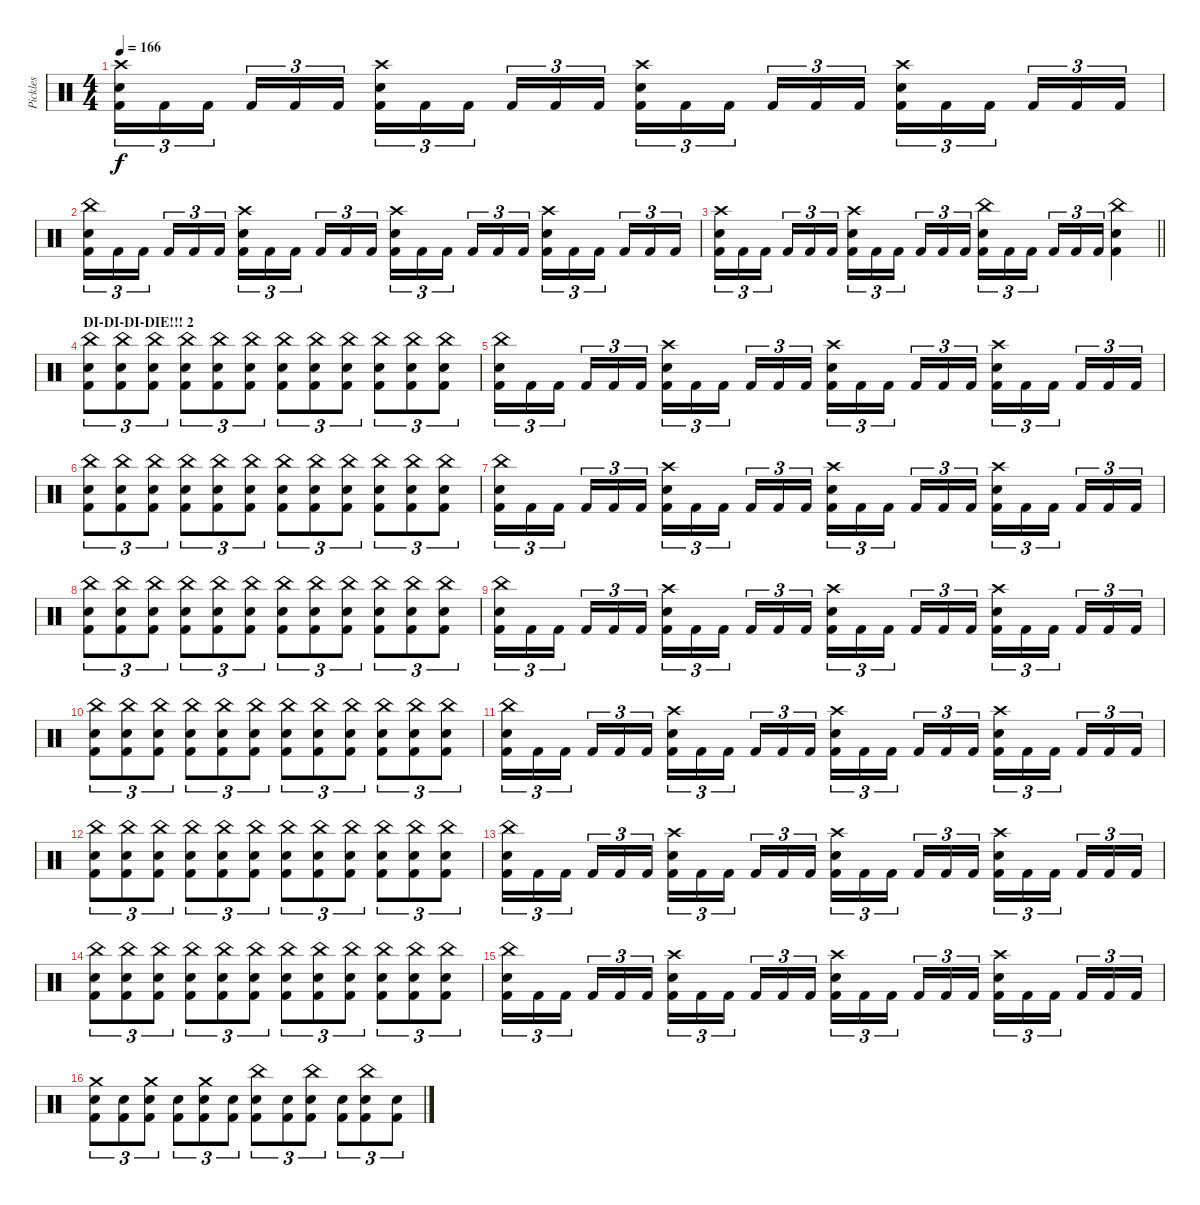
\track ("Pickles" "Pickles") {instrument percussion}
\staff {score}
\articulation defaults
\ts (4 4)
\tempo 166
\clef neutral
\ks c
("Crash high (hit)" "Snare (hit) 2" "Kick (hit) 2").16{tu (3 2) dy f} "Kick (hit) 2".16{tu (3 2)} "Kick (hit) 2".16{tu (3 2) beam splitsecondary} "Kick (hit) 2".16{tu (3 2)} "Kick (hit) 2".16{tu (3 2)} "Kick (hit) 2".16{tu (3 2)} ("Crash high (hit)" "Snare (hit) 2" "Kick (hit) 2").16{tu (3 2)} "Kick (hit) 2".16{tu (3 2)} "Kick (hit) 2".16{tu (3 2) beam splitsecondary} "Kick (hit) 2".16{tu (3 2)} "Kick (hit) 2".16{tu (3 2)} "Kick (hit) 2".16{tu (3 2)} ("Crash high (hit)" "Snare (hit) 2" "Kick (hit) 2").16{tu (3 2)} "Kick (hit) 2".16{tu (3 2)} "Kick (hit) 2".16{tu (3 2) beam splitsecondary} "Kick (hit) 2".16{tu (3 2)} "Kick (hit) 2".16{tu (3 2)} "Kick (hit) 2".16{tu (3 2)} ("Crash high (hit)" "Snare (hit) 2" "Kick (hit) 2").16{tu (3 2)} "Kick (hit) 2".16{tu (3 2)} "Kick (hit) 2".16{tu (3 2) beam splitsecondary} "Kick (hit) 2".16{tu (3 2)} "Kick (hit) 2".16{tu (3 2)} "Kick (hit) 2".16{tu (3 2)} |
("China (hit)" "Snare (hit) 2" "Kick (hit) 2").16{tu (3 2)} "Kick (hit) 2".16{tu (3 2)} "Kick (hit) 2".16{tu (3 2) beam splitsecondary} "Kick (hit) 2".16{tu (3 2)} "Kick (hit) 2".16{tu (3 2)} "Kick (hit) 2".16{tu (3 2)} ("Crash high (hit)" "Snare (hit) 2" "Kick (hit) 2").16{tu (3 2)} "Kick (hit) 2".16{tu (3 2)} "Kick (hit) 2".16{tu (3 2) beam splitsecondary} "Kick (hit) 2".16{tu (3 2)} "Kick (hit) 2".16{tu (3 2)} "Kick (hit) 2".16{tu (3 2)} ("Crash high (hit)" "Snare (hit) 2" "Kick (hit) 2").16{tu (3 2)} "Kick (hit) 2".16{tu (3 2)} "Kick (hit) 2".16{tu (3 2) beam splitsecondary} "Kick (hit) 2".16{tu (3 2)} "Kick (hit) 2".16{tu (3 2)} "Kick (hit) 2".16{tu (3 2)} ("Crash high (hit)" "Snare (hit) 2" "Kick (hit) 2").16{tu (3 2)} "Kick (hit) 2".16{tu (3 2)} "Kick (hit) 2".16{tu (3 2) beam splitsecondary} "Kick (hit) 2".16{tu (3 2)} "Kick (hit) 2".16{tu (3 2)} "Kick (hit) 2".16{tu (3 2)} |
\barLineRight lightlight
("Crash high (hit)" "Snare (hit) 2" "Kick (hit) 2").16{tu (3 2)} "Kick (hit) 2".16{tu (3 2)} "Kick (hit) 2".16{tu (3 2) beam splitsecondary} "Kick (hit) 2".16{tu (3 2)} "Kick (hit) 2".16{tu (3 2)} "Kick (hit) 2".16{tu (3 2)} ("Crash high (hit)" "Snare (hit) 2" "Kick (hit) 2").16{tu (3 2)} "Kick (hit) 2".16{tu (3 2)} "Kick (hit) 2".16{tu (3 2) beam splitsecondary} "Kick (hit) 2".16{tu (3 2)} "Kick (hit) 2".16{tu (3 2)} "Kick (hit) 2".16{tu (3 2)} ("China (hit)" "Snare (hit) 2" "Kick (hit) 2").16{tu (3 2)} "Kick (hit) 2".16{tu (3 2)} "Kick (hit) 2".16{tu (3 2) beam splitsecondary} "Kick (hit) 2".16{tu (3 2)} "Kick (hit) 2".16{tu (3 2)} "Kick (hit) 2".16{tu (3 2)} ("China (hit)" "Snare (hit) 2" "Kick (hit) 2").4 |
\section ("" "DI-DI-DI-DIE!!! 2")
("China (hit)" "Snare (hit) 2" "Kick (hit) 2").8{tu (3 2)} ("China (hit)" "Snare (hit) 2" "Kick (hit) 2").8{tu (3 2)} ("China (hit)" "Snare (hit) 2" "Kick (hit) 2").8{tu (3 2)} ("China (hit)" "Snare (hit) 2" "Kick (hit) 2").8{tu (3 2)} ("China (hit)" "Snare (hit) 2" "Kick (hit) 2").8{tu (3 2)} ("China (hit)" "Snare (hit) 2" "Kick (hit) 2").8{tu (3 2)} ("China (hit)" "Snare (hit) 2" "Kick (hit) 2").8{tu (3 2)} ("China (hit)" "Snare (hit) 2" "Kick (hit) 2").8{tu (3 2)} ("China (hit)" "Snare (hit) 2" "Kick (hit) 2").8{tu (3 2)} ("China (hit)" "Snare (hit) 2" "Kick (hit) 2").8{tu (3 2)} ("China (hit)" "Snare (hit) 2" "Kick (hit) 2").8{tu (3 2)} ("China (hit)" "Snare (hit) 2" "Kick (hit) 2").8{tu (3 2)} |
("China (hit)" "Snare (hit) 2" "Kick (hit) 2").16{tu (3 2)} "Kick (hit) 2".16{tu (3 2)} "Kick (hit) 2".16{tu (3 2) beam splitsecondary} "Kick (hit) 2".16{tu (3 2)} "Kick (hit) 2".16{tu (3 2)} "Kick (hit) 2".16{tu (3 2)} ("Crash high (hit)" "Snare (hit) 2" "Kick (hit) 2").16{tu (3 2)} "Kick (hit) 2".16{tu (3 2)} "Kick (hit) 2".16{tu (3 2) beam splitsecondary} "Kick (hit) 2".16{tu (3 2)} "Kick (hit) 2".16{tu (3 2)} "Kick (hit) 2".16{tu (3 2)} ("Crash high (hit)" "Snare (hit) 2" "Kick (hit) 2").16{tu (3 2)} "Kick (hit) 2".16{tu (3 2)} "Kick (hit) 2".16{tu (3 2) beam splitsecondary} "Kick (hit) 2".16{tu (3 2)} "Kick (hit) 2".16{tu (3 2)} "Kick (hit) 2".16{tu (3 2)} ("Crash high (hit)" "Snare (hit) 2" "Kick (hit) 2").16{tu (3 2)} "Kick (hit) 2".16{tu (3 2)} "Kick (hit) 2".16{tu (3 2) beam splitsecondary} "Kick (hit) 2".16{tu (3 2)} "Kick (hit) 2".16{tu (3 2)} "Kick (hit) 2".16{tu (3 2)} |
("China (hit)" "Snare (hit) 2" "Kick (hit) 2").8{tu (3 2)} ("China (hit)" "Snare (hit) 2" "Kick (hit) 2").8{tu (3 2)} ("China (hit)" "Snare (hit) 2" "Kick (hit) 2").8{tu (3 2)} ("China (hit)" "Snare (hit) 2" "Kick (hit) 2").8{tu (3 2)} ("China (hit)" "Snare (hit) 2" "Kick (hit) 2").8{tu (3 2)} ("China (hit)" "Snare (hit) 2" "Kick (hit) 2").8{tu (3 2)} ("China (hit)" "Snare (hit) 2" "Kick (hit) 2").8{tu (3 2)} ("China (hit)" "Snare (hit) 2" "Kick (hit) 2").8{tu (3 2)} ("China (hit)" "Snare (hit) 2" "Kick (hit) 2").8{tu (3 2)} ("China (hit)" "Snare (hit) 2" "Kick (hit) 2").8{tu (3 2)} ("China (hit)" "Snare (hit) 2" "Kick (hit) 2").8{tu (3 2)} ("China (hit)" "Snare (hit) 2" "Kick (hit) 2").8{tu (3 2)} |
("China (hit)" "Snare (hit) 2" "Kick (hit) 2").16{tu (3 2)} "Kick (hit) 2".16{tu (3 2)} "Kick (hit) 2".16{tu (3 2) beam splitsecondary} "Kick (hit) 2".16{tu (3 2)} "Kick (hit) 2".16{tu (3 2)} "Kick (hit) 2".16{tu (3 2)} ("Crash high (hit)" "Snare (hit) 2" "Kick (hit) 2").16{tu (3 2)} "Kick (hit) 2".16{tu (3 2)} "Kick (hit) 2".16{tu (3 2) beam splitsecondary} "Kick (hit) 2".16{tu (3 2)} "Kick (hit) 2".16{tu (3 2)} "Kick (hit) 2".16{tu (3 2)} ("Crash high (hit)" "Snare (hit) 2" "Kick (hit) 2").16{tu (3 2)} "Kick (hit) 2".16{tu (3 2)} "Kick (hit) 2".16{tu (3 2) beam splitsecondary} "Kick (hit) 2".16{tu (3 2)} "Kick (hit) 2".16{tu (3 2)} "Kick (hit) 2".16{tu (3 2)} ("Crash high (hit)" "Snare (hit) 2" "Kick (hit) 2").16{tu (3 2)} "Kick (hit) 2".16{tu (3 2)} "Kick (hit) 2".16{tu (3 2) beam splitsecondary} "Kick (hit) 2".16{tu (3 2)} "Kick (hit) 2".16{tu (3 2)} "Kick (hit) 2".16{tu (3 2)} |
("China (hit)" "Snare (hit) 2" "Kick (hit) 2").8{tu (3 2)} ("China (hit)" "Snare (hit) 2" "Kick (hit) 2").8{tu (3 2)} ("China (hit)" "Snare (hit) 2" "Kick (hit) 2").8{tu (3 2)} ("China (hit)" "Snare (hit) 2" "Kick (hit) 2").8{tu (3 2)} ("China (hit)" "Snare (hit) 2" "Kick (hit) 2").8{tu (3 2)} ("China (hit)" "Snare (hit) 2" "Kick (hit) 2").8{tu (3 2)} ("China (hit)" "Snare (hit) 2" "Kick (hit) 2").8{tu (3 2)} ("China (hit)" "Snare (hit) 2" "Kick (hit) 2").8{tu (3 2)} ("China (hit)" "Snare (hit) 2" "Kick (hit) 2").8{tu (3 2)} ("China (hit)" "Snare (hit) 2" "Kick (hit) 2").8{tu (3 2)} ("China (hit)" "Snare (hit) 2" "Kick (hit) 2").8{tu (3 2)} ("China (hit)" "Snare (hit) 2" "Kick (hit) 2").8{tu (3 2)} |
("China (hit)" "Snare (hit) 2" "Kick (hit) 2").16{tu (3 2)} "Kick (hit) 2".16{tu (3 2)} "Kick (hit) 2".16{tu (3 2) beam splitsecondary} "Kick (hit) 2".16{tu (3 2)} "Kick (hit) 2".16{tu (3 2)} "Kick (hit) 2".16{tu (3 2)} ("Crash high (hit)" "Snare (hit) 2" "Kick (hit) 2").16{tu (3 2)} "Kick (hit) 2".16{tu (3 2)} "Kick (hit) 2".16{tu (3 2) beam splitsecondary} "Kick (hit) 2".16{tu (3 2)} "Kick (hit) 2".16{tu (3 2)} "Kick (hit) 2".16{tu (3 2)} ("Crash high (hit)" "Snare (hit) 2" "Kick (hit) 2").16{tu (3 2)} "Kick (hit) 2".16{tu (3 2)} "Kick (hit) 2".16{tu (3 2) beam splitsecondary} "Kick (hit) 2".16{tu (3 2)} "Kick (hit) 2".16{tu (3 2)} "Kick (hit) 2".16{tu (3 2)} ("Crash high (hit)" "Snare (hit) 2" "Kick (hit) 2").16{tu (3 2)} "Kick (hit) 2".16{tu (3 2)} "Kick (hit) 2".16{tu (3 2) beam splitsecondary} "Kick (hit) 2".16{tu (3 2)} "Kick (hit) 2".16{tu (3 2)} "Kick (hit) 2".16{tu (3 2)} |
("China (hit)" "Snare (hit) 2" "Kick (hit) 2").8{tu (3 2)} ("China (hit)" "Snare (hit) 2" "Kick (hit) 2").8{tu (3 2)} ("China (hit)" "Snare (hit) 2" "Kick (hit) 2").8{tu (3 2)} ("China (hit)" "Snare (hit) 2" "Kick (hit) 2").8{tu (3 2)} ("China (hit)" "Snare (hit) 2" "Kick (hit) 2").8{tu (3 2)} ("China (hit)" "Snare (hit) 2" "Kick (hit) 2").8{tu (3 2)} ("China (hit)" "Snare (hit) 2" "Kick (hit) 2").8{tu (3 2)} ("China (hit)" "Snare (hit) 2" "Kick (hit) 2").8{tu (3 2)} ("China (hit)" "Snare (hit) 2" "Kick (hit) 2").8{tu (3 2)} ("China (hit)" "Snare (hit) 2" "Kick (hit) 2").8{tu (3 2)} ("China (hit)" "Snare (hit) 2" "Kick (hit) 2").8{tu (3 2)} ("China (hit)" "Snare (hit) 2" "Kick (hit) 2").8{tu (3 2)} |
("China (hit)" "Snare (hit) 2" "Kick (hit) 2").16{tu (3 2)} "Kick (hit) 2".16{tu (3 2)} "Kick (hit) 2".16{tu (3 2) beam splitsecondary} "Kick (hit) 2".16{tu (3 2)} "Kick (hit) 2".16{tu (3 2)} "Kick (hit) 2".16{tu (3 2)} ("Crash high (hit)" "Snare (hit) 2" "Kick (hit) 2").16{tu (3 2)} "Kick (hit) 2".16{tu (3 2)} "Kick (hit) 2".16{tu (3 2) beam splitsecondary} "Kick (hit) 2".16{tu (3 2)} "Kick (hit) 2".16{tu (3 2)} "Kick (hit) 2".16{tu (3 2)} ("Crash high (hit)" "Snare (hit) 2" "Kick (hit) 2").16{tu (3 2)} "Kick (hit) 2".16{tu (3 2)} "Kick (hit) 2".16{tu (3 2) beam splitsecondary} "Kick (hit) 2".16{tu (3 2)} "Kick (hit) 2".16{tu (3 2)} "Kick (hit) 2".16{tu (3 2)} ("Crash high (hit)" "Snare (hit) 2" "Kick (hit) 2").16{tu (3 2)} "Kick (hit) 2".16{tu (3 2)} "Kick (hit) 2".16{tu (3 2) beam splitsecondary} "Kick (hit) 2".16{tu (3 2)} "Kick (hit) 2".16{tu (3 2)} "Kick (hit) 2".16{tu (3 2)} |
("China (hit)" "Snare (hit) 2" "Kick (hit) 2").8{tu (3 2)} ("China (hit)" "Snare (hit) 2" "Kick (hit) 2").8{tu (3 2)} ("China (hit)" "Snare (hit) 2" "Kick (hit) 2").8{tu (3 2)} ("China (hit)" "Snare (hit) 2" "Kick (hit) 2").8{tu (3 2)} ("China (hit)" "Snare (hit) 2" "Kick (hit) 2").8{tu (3 2)} ("China (hit)" "Snare (hit) 2" "Kick (hit) 2").8{tu (3 2)} ("China (hit)" "Snare (hit) 2" "Kick (hit) 2").8{tu (3 2)} ("China (hit)" "Snare (hit) 2" "Kick (hit) 2").8{tu (3 2)} ("China (hit)" "Snare (hit) 2" "Kick (hit) 2").8{tu (3 2)} ("China (hit)" "Snare (hit) 2" "Kick (hit) 2").8{tu (3 2)} ("China (hit)" "Snare (hit) 2" "Kick (hit) 2").8{tu (3 2)} ("China (hit)" "Snare (hit) 2" "Kick (hit) 2").8{tu (3 2)} |
("China (hit)" "Snare (hit) 2" "Kick (hit) 2").16{tu (3 2)} "Kick (hit) 2".16{tu (3 2)} "Kick (hit) 2".16{tu (3 2) beam splitsecondary} "Kick (hit) 2".16{tu (3 2)} "Kick (hit) 2".16{tu (3 2)} "Kick (hit) 2".16{tu (3 2)} ("Crash high (hit)" "Snare (hit) 2" "Kick (hit) 2").16{tu (3 2)} "Kick (hit) 2".16{tu (3 2)} "Kick (hit) 2".16{tu (3 2) beam splitsecondary} "Kick (hit) 2".16{tu (3 2)} "Kick (hit) 2".16{tu (3 2)} "Kick (hit) 2".16{tu (3 2)} ("Crash high (hit)" "Snare (hit) 2" "Kick (hit) 2").16{tu (3 2)} "Kick (hit) 2".16{tu (3 2)} "Kick (hit) 2".16{tu (3 2) beam splitsecondary} "Kick (hit) 2".16{tu (3 2)} "Kick (hit) 2".16{tu (3 2)} "Kick (hit) 2".16{tu (3 2)} ("Crash high (hit)" "Snare (hit) 2" "Kick (hit) 2").16{tu (3 2)} "Kick (hit) 2".16{tu (3 2)} "Kick (hit) 2".16{tu (3 2) beam splitsecondary} "Kick (hit) 2".16{tu (3 2)} "Kick (hit) 2".16{tu (3 2)} "Kick (hit) 2".16{tu (3 2)} |
("China (hit)" "Snare (hit) 2" "Kick (hit) 2").8{tu (3 2)} ("China (hit)" "Snare (hit) 2" "Kick (hit) 2").8{tu (3 2)} ("China (hit)" "Snare (hit) 2" "Kick (hit) 2").8{tu (3 2)} ("China (hit)" "Snare (hit) 2" "Kick (hit) 2").8{tu (3 2)} ("China (hit)" "Snare (hit) 2" "Kick (hit) 2").8{tu (3 2)} ("China (hit)" "Snare (hit) 2" "Kick (hit) 2").8{tu (3 2)} ("China (hit)" "Snare (hit) 2" "Kick (hit) 2").8{tu (3 2)} ("China (hit)" "Snare (hit) 2" "Kick (hit) 2").8{tu (3 2)} ("China (hit)" "Snare (hit) 2" "Kick (hit) 2").8{tu (3 2)} ("China (hit)" "Snare (hit) 2" "Kick (hit) 2").8{tu (3 2)} ("China (hit)" "Snare (hit) 2" "Kick (hit) 2").8{tu (3 2)} ("China (hit)" "Snare (hit) 2" "Kick (hit) 2").8{tu (3 2)} |
("China (hit)" "Snare (hit) 2" "Kick (hit) 2").16{tu (3 2)} "Kick (hit) 2".16{tu (3 2)} "Kick (hit) 2".16{tu (3 2) beam splitsecondary} "Kick (hit) 2".16{tu (3 2)} "Kick (hit) 2".16{tu (3 2)} "Kick (hit) 2".16{tu (3 2)} ("Crash high (hit)" "Snare (hit) 2" "Kick (hit) 2").16{tu (3 2)} "Kick (hit) 2".16{tu (3 2)} "Kick (hit) 2".16{tu (3 2) beam splitsecondary} "Kick (hit) 2".16{tu (3 2)} "Kick (hit) 2".16{tu (3 2)} "Kick (hit) 2".16{tu (3 2)} ("Crash high (hit)" "Snare (hit) 2" "Kick (hit) 2").16{tu (3 2)} "Kick (hit) 2".16{tu (3 2)} "Kick (hit) 2".16{tu (3 2) beam splitsecondary} "Kick (hit) 2".16{tu (3 2)} "Kick (hit) 2".16{tu (3 2)} "Kick (hit) 2".16{tu (3 2)} ("Crash high (hit)" "Snare (hit) 2" "Kick (hit) 2").16{tu (3 2)} "Kick (hit) 2".16{tu (3 2)} "Kick (hit) 2".16{tu (3 2) beam splitsecondary} "Kick (hit) 2".16{tu (3 2)} "Kick (hit) 2".16{tu (3 2)} "Kick (hit) 2".16{tu (3 2)} |
("Crash medium (hit)" "Snare (hit) 2" "Kick (hit) 2").8{tu (3 2)} ("Snare (hit) 2" "Kick (hit) 2").8{tu (3 2)} ("Crash medium (hit)" "Snare (hit) 2" "Kick (hit) 2").8{tu (3 2)} ("Snare (hit) 2" "Kick (hit) 2").8{tu (3 2)} ("Crash medium (hit)" "Snare (hit) 2" "Kick (hit) 2").8{tu (3 2)} ("Snare (hit) 2" "Kick (hit) 2").8{tu (3 2)} ("China (hit)" "Snare (hit) 2" "Kick (hit) 2").8{tu (3 2)} ("Snare (hit) 2" "Kick (hit) 2").8{tu (3 2)} ("China (hit)" "Snare (hit) 2" "Kick (hit) 2").8{tu (3 2)} ("Snare (hit) 2" "Kick (hit) 2").8{tu (3 2)} ("China (hit)" "Snare (hit) 2" "Kick (hit) 2").8{tu (3 2)} ("Snare (hit) 2" "Kick (hit) 2").8{tu (3 2)}
